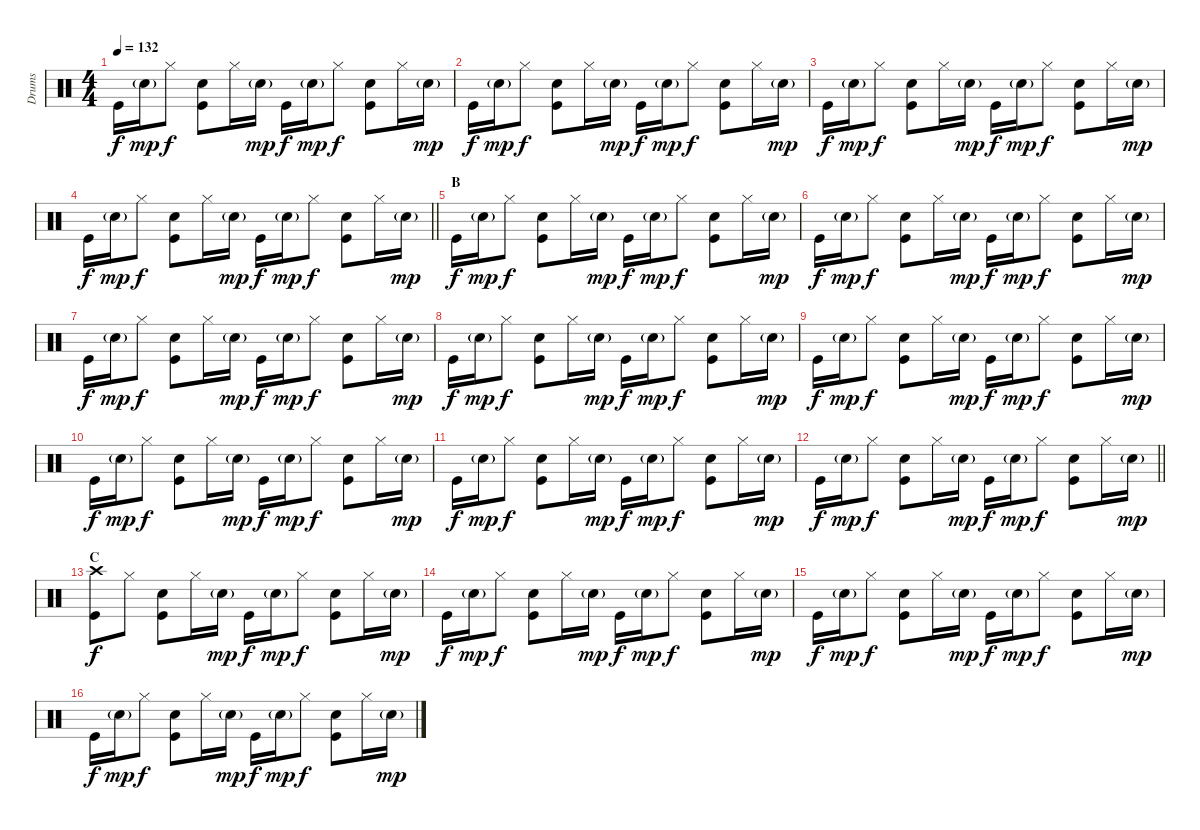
\track ("Drums" "Drums") {instrument percussion}
\staff {score}
\articulation defaults
\ts (4 4)
\tempo 132
\clef neutral
\ks c "Kick (hit)".16{dy f} "Electric Snare (hit)"{g}.16{dy mp} "Hi-Hat (closed)".8{dy f}
("Electric Snare (hit)" "Kick (hit)").8 "Hi-Hat (closed)".16 "Electric Snare (hit)"{g}.16{dy mp} "Kick (hit)".16{dy f} "Electric Snare (hit)"{g}.16{dy mp} "Hi-Hat (closed)".8{dy f} ("Electric Snare (hit)" "Kick (hit)").8 "Hi-Hat (closed)".16 "Electric Snare (hit)"{g}.16{dy mp} |
"Kick (hit)".16{dy f} "Electric Snare (hit)"{g}.16{dy mp} "Hi-Hat (closed)".8{dy f} ("Electric Snare (hit)" "Kick (hit)").8 "Hi-Hat (closed)".16 "Electric Snare (hit)"{g}.16{dy mp} "Kick (hit)".16{dy f} "Electric Snare (hit)"{g}.16{dy mp} "Hi-Hat (closed)".8{dy f} ("Electric Snare (hit)" "Kick (hit)").8 "Hi-Hat (closed)".16 "Electric Snare (hit)"{g}.16{dy mp} |
"Kick (hit)".16{dy f} "Electric Snare (hit)"{g}.16{dy mp} "Hi-Hat (closed)".8{dy f} ("Electric Snare (hit)" "Kick (hit)").8 "Hi-Hat (closed)".16 "Electric Snare (hit)"{g}.16{dy mp} "Kick (hit)".16{dy f} "Electric Snare (hit)"{g}.16{dy mp} "Hi-Hat (closed)".8{dy f} ("Electric Snare (hit)" "Kick (hit)").8 "Hi-Hat (closed)".16 "Electric Snare (hit)"{g}.16{dy mp} |
\barLineRight lightlight "Kick (hit)".16{dy f} "Electric Snare (hit)"{g}.16{dy mp} "Hi-Hat (closed)".8{dy f}
("Electric Snare (hit)" "Kick (hit)").8 "Hi-Hat (closed)".16 "Electric Snare (hit)"{g}.16{dy mp} "Kick (hit)".16{dy f} "Electric Snare (hit)"{g}.16{dy mp} "Hi-Hat (closed)".8{dy f} ("Electric Snare (hit)" "Kick (hit)").8 "Hi-Hat (closed)".16 "Electric Snare (hit)"{g}.16{dy mp} |
\section ("" "B")
"Kick (hit)".16{dy f} "Electric Snare (hit)"{g}.16{dy mp} "Hi-Hat (closed)".8{dy f} ("Electric Snare (hit)" "Kick (hit)").8 "Hi-Hat (closed)".16 "Electric Snare (hit)"{g}.16{dy mp} "Kick (hit)".16{dy f} "Electric Snare (hit)"{g}.16{dy mp} "Hi-Hat (closed)".8{dy f} ("Electric Snare (hit)" "Kick (hit)").8 "Hi-Hat (closed)".16 "Electric Snare (hit)"{g}.16{dy mp} |
"Kick (hit)".16{dy f} "Electric Snare (hit)"{g}.16{dy mp} "Hi-Hat (closed)".8{dy f} ("Electric Snare (hit)" "Kick (hit)").8 "Hi-Hat (closed)".16 "Electric Snare (hit)"{g}.16{dy mp} "Kick (hit)".16{dy f} "Electric Snare (hit)"{g}.16{dy mp} "Hi-Hat (closed)".8{dy f} ("Electric Snare (hit)" "Kick (hit)").8 "Hi-Hat (closed)".16 "Electric Snare (hit)"{g}.16{dy mp} |
"Kick (hit)".16{dy f} "Electric Snare (hit)"{g}.16{dy mp} "Hi-Hat (closed)".8{dy f} ("Electric Snare (hit)" "Kick (hit)").8 "Hi-Hat (closed)".16 "Electric Snare (hit)"{g}.16{dy mp} "Kick (hit)".16{dy f} "Electric Snare (hit)"{g}.16{dy mp} "Hi-Hat (closed)".8{dy f} ("Electric Snare (hit)" "Kick (hit)").8 "Hi-Hat (closed)".16 "Electric Snare (hit)"{g}.16{dy mp} |
"Kick (hit)".16{dy f} "Electric Snare (hit)"{g}.16{dy mp} "Hi-Hat (closed)".8{dy f} ("Electric Snare (hit)" "Kick (hit)").8 "Hi-Hat (closed)".16 "Electric Snare (hit)"{g}.16{dy mp} "Kick (hit)".16{dy f} "Electric Snare (hit)"{g}.16{dy mp} "Hi-Hat (closed)".8{dy f} ("Electric Snare (hit)" "Kick (hit)").8 "Hi-Hat (closed)".16 "Electric Snare (hit)"{g}.16{dy mp} |
"Kick (hit)".16{dy f} "Electric Snare (hit)"{g}.16{dy mp} "Hi-Hat (closed)".8{dy f} ("Electric Snare (hit)" "Kick (hit)").8 "Hi-Hat (closed)".16 "Electric Snare (hit)"{g}.16{dy mp} "Kick (hit)".16{dy f} "Electric Snare (hit)"{g}.16{dy mp} "Hi-Hat (closed)".8{dy f} ("Electric Snare (hit)" "Kick (hit)").8 "Hi-Hat (closed)".16 "Electric Snare (hit)"{g}.16{dy mp} |
"Kick (hit)".16{dy f} "Electric Snare (hit)"{g}.16{dy mp} "Hi-Hat (closed)".8{dy f} ("Electric Snare (hit)" "Kick (hit)").8 "Hi-Hat (closed)".16 "Electric Snare (hit)"{g}.16{dy mp} "Kick (hit)".16{dy f} "Electric Snare (hit)"{g}.16{dy mp} "Hi-Hat (closed)".8{dy f} ("Electric Snare (hit)" "Kick (hit)").8 "Hi-Hat (closed)".16 "Electric Snare (hit)"{g}.16{dy mp} |
"Kick (hit)".16{dy f} "Electric Snare (hit)"{g}.16{dy mp} "Hi-Hat (closed)".8{dy f} ("Electric Snare (hit)" "Kick (hit)").8 "Hi-Hat (closed)".16 "Electric Snare (hit)"{g}.16{dy mp} "Kick (hit)".16{dy f} "Electric Snare (hit)"{g}.16{dy mp} "Hi-Hat (closed)".8{dy f} ("Electric Snare (hit)" "Kick (hit)").8 "Hi-Hat (closed)".16 "Electric Snare (hit)"{g}.16{dy mp} |
\barLineRight lightlight "Kick (hit)".16{dy f} "Electric Snare (hit)"{g}.16{dy mp} "Hi-Hat (closed)".8{dy f}
("Electric Snare (hit)" "Kick (hit)").8 "Hi-Hat (closed)".16 "Electric Snare (hit)"{g}.16{dy mp} "Kick (hit)".16{dy f} "Electric Snare (hit)"{g}.16{dy mp} "Hi-Hat (closed)".8{dy f} ("Electric Snare (hit)" "Kick (hit)").8 "Hi-Hat (closed)".16 "Electric Snare (hit)"{g}.16{dy mp} |
\section ("" "C")
("Crash high (hit)" "Kick (hit)").8{dy f} "Hi-Hat (closed)".8 ("Electric Snare (hit)" "Kick (hit)").8 "Hi-Hat (closed)".16 "Electric Snare (hit)"{g}.16{dy mp} "Kick (hit)".16{dy f} "Electric Snare (hit)"{g}.16{dy mp} "Hi-Hat (closed)".8{dy f} ("Electric Snare (hit)" "Kick (hit)").8 "Hi-Hat (closed)".16 "Electric Snare (hit)"{g}.16{dy mp} |
"Kick (hit)".16{dy f} "Electric Snare (hit)"{g}.16{dy mp} "Hi-Hat (closed)".8{dy f} ("Electric Snare (hit)" "Kick (hit)").8 "Hi-Hat (closed)".16 "Electric Snare (hit)"{g}.16{dy mp} "Kick (hit)".16{dy f} "Electric Snare (hit)"{g}.16{dy mp} "Hi-Hat (closed)".8{dy f} ("Electric Snare (hit)" "Kick (hit)").8 "Hi-Hat (closed)".16 "Electric Snare (hit)"{g}.16{dy mp} |
"Kick (hit)".16{dy f} "Electric Snare (hit)"{g}.16{dy mp} "Hi-Hat (closed)".8{dy f} ("Electric Snare (hit)" "Kick (hit)").8 "Hi-Hat (closed)".16 "Electric Snare (hit)"{g}.16{dy mp} "Kick (hit)".16{dy f} "Electric Snare (hit)"{g}.16{dy mp} "Hi-Hat (closed)".8{dy f} ("Electric Snare (hit)" "Kick (hit)").8 "Hi-Hat (closed)".16 "Electric Snare (hit)"{g}.16{dy mp} |
"Kick (hit)".16{dy f} "Electric Snare (hit)"{g}.16{dy mp} "Hi-Hat (closed)".8{dy f} ("Electric Snare (hit)" "Kick (hit)").8 "Hi-Hat (closed)".16 "Electric Snare (hit)"{g}.16{dy mp} "Kick (hit)".16{dy f} "Electric Snare (hit)"{g}.16{dy mp} "Hi-Hat (closed)".8{dy f} ("Electric Snare (hit)" "Kick (hit)").8 "Hi-Hat (closed)".16 "Electric Snare (hit)"{g}.16{dy mp}
